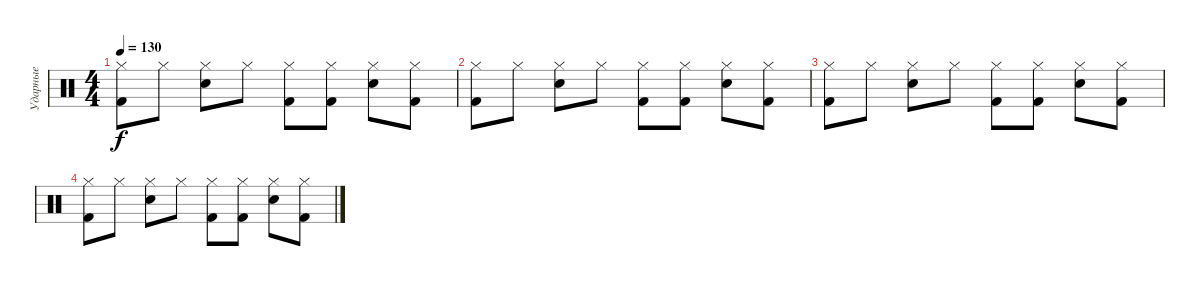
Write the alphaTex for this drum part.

\track ("Ударные" "Ударные") {instrument percussion}
\staff {score}
\articulation defaults
\ts (4 4)
\tempo 130
\clef neutral
\ks c
("Hi-Hat (closed)" "Kick (hit) 2").8{dy f} "Hi-Hat (closed)".8 ("Hi-Hat (closed)" "Snare (hit) 2").8 "Hi-Hat (closed)".8 ("Hi-Hat (closed)" "Kick (hit) 2").8 ("Hi-Hat (closed)" "Kick (hit) 2").8 ("Hi-Hat (closed)" "Snare (hit) 2").8 ("Hi-Hat (closed)" "Kick (hit) 2").8 |
("Hi-Hat (closed)" "Kick (hit) 2").8 "Hi-Hat (closed)".8 ("Hi-Hat (closed)" "Snare (hit) 2").8 "Hi-Hat (closed)".8 ("Hi-Hat (closed)" "Kick (hit) 2").8 ("Hi-Hat (closed)" "Kick (hit) 2").8 ("Hi-Hat (closed)" "Snare (hit) 2").8 ("Hi-Hat (closed)" "Kick (hit) 2").8 |
("Hi-Hat (closed)" "Kick (hit) 2").8 "Hi-Hat (closed)".8 ("Hi-Hat (closed)" "Snare (hit) 2").8 "Hi-Hat (closed)".8 ("Hi-Hat (closed)" "Kick (hit) 2").8 ("Hi-Hat (closed)" "Kick (hit) 2").8 ("Hi-Hat (closed)" "Snare (hit) 2").8 ("Hi-Hat (closed)" "Kick (hit) 2").8 |
("Hi-Hat (closed)" "Kick (hit) 2").8 "Hi-Hat (closed)".8 ("Hi-Hat (closed)" "Snare (hit) 2").8 "Hi-Hat (closed)".8 ("Hi-Hat (closed)" "Kick (hit) 2").8 ("Hi-Hat (closed)" "Kick (hit) 2").8 ("Hi-Hat (closed)" "Snare (hit) 2").8 ("Hi-Hat (closed)" "Kick (hit) 2").8
